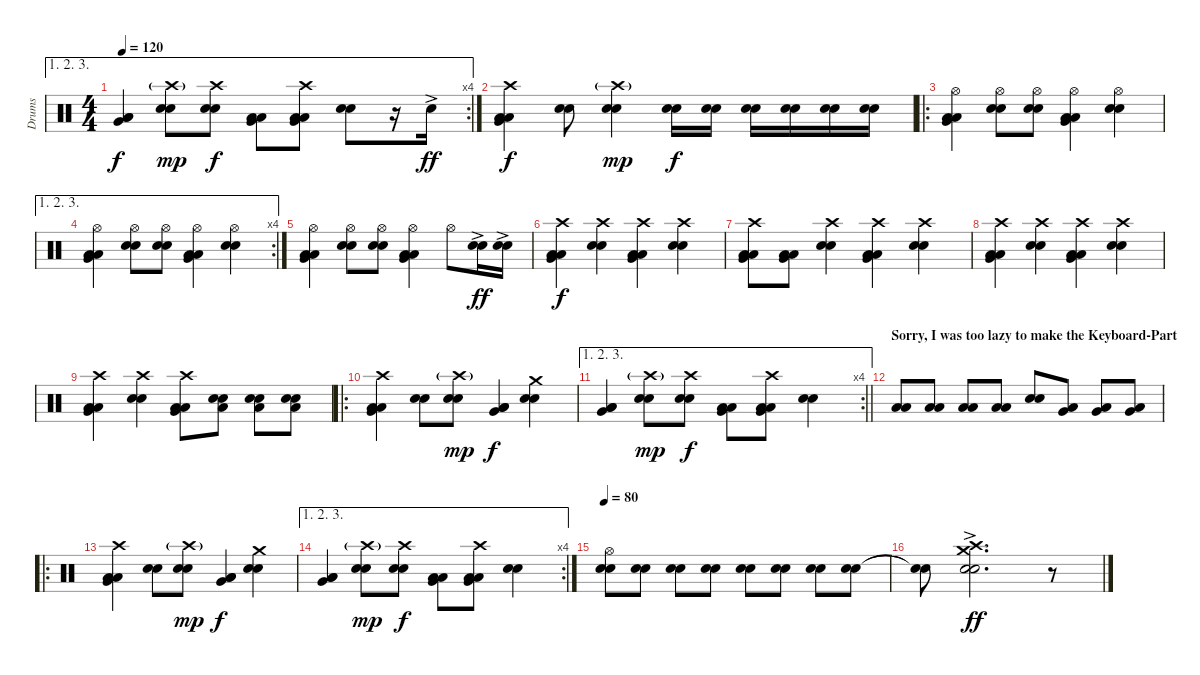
\track ("Drums" "Drums") {instrument percussion}
\staff {score}
\articulation defaults
\ae (1 2 3)
\rc 4
\ts (4 4)
\tempo 120
\clef neutral
\ks c
("Low Floor Tom (hit)" "Very Low Tom (hit)" "Low Tom (hit)").4{dy f} ("Crash high (hit)"{g} "Electric Snare (hit)" "Snare (hit) 2").8{dy mp} ("Crash high (hit)" "Electric Snare (hit)" "Snare (hit) 2").8{dy f} ("Low Tom (hit)" "Low Floor Tom (hit)" "Very Low Tom (hit)").8 ("Crash high (hit)" "Low Tom (hit)" "Low Floor Tom (hit)" "Very Low Tom (hit)").8 ("Electric Snare (hit)" "Snare (hit) 2").8 r.16 "Electric Snare (hit)"{ac}.16{dy ff} |
("Crash high (hit)" "Low Floor Tom (hit)" "Very Low Tom (hit)" "Low Tom (hit)").4{dy f} ("Electric Snare (hit)" "Snare (hit) 2").8 ("Crash high (hit)"{g} "Electric Snare (hit)" "Snare (hit) 2").4{dy mp} ("Electric Snare (hit)" "Snare (hit) 2").16{dy f} ("Electric Snare (hit)" "Snare (hit) 2").16 ("Electric Snare (hit)" "Snare (hit) 2").16 ("Electric Snare (hit)" "Snare (hit) 2").16 ("Electric Snare (hit)" "Snare (hit) 2").16 ("Electric Snare (hit)" "Snare (hit) 2").16 |
\ro
("Hi-Hat (open)" "Low Floor Tom (hit)" "Very Low Tom (hit)" "Low Tom (hit)").4 ("Hi-Hat (open)" "Electric Snare (hit)" "Snare (hit) 2").8 ("Hi-Hat (open)" "Electric Snare (hit)" "Snare (hit) 2").8 ("Hi-Hat (open)" "Low Tom (hit)" "Low Floor Tom (hit)" "Very Low Tom (hit)").4 ("Hi-Hat (open)" "Electric Snare (hit)" "Snare (hit) 2").4 |
\ae (1 2 3)
\rc 4
("Hi-Hat (open)" "Low Floor Tom (hit)" "Very Low Tom (hit)" "Low Tom (hit)").4 ("Hi-Hat (open)" "Electric Snare (hit)" "Snare (hit) 2").8 ("Hi-Hat (open)" "Electric Snare (hit)" "Snare (hit) 2").8 ("Hi-Hat (open)" "Low Tom (hit)" "Low Floor Tom (hit)" "Very Low Tom (hit)").4 ("Hi-Hat (open)" "Electric Snare (hit)" "Snare (hit) 2").4 |
("Hi-Hat (open)" "Low Floor Tom (hit)" "Very Low Tom (hit)" "Low Tom (hit)").4 ("Hi-Hat (open)" "Electric Snare (hit)" "Snare (hit) 2").8 ("Hi-Hat (open)" "Electric Snare (hit)" "Snare (hit) 2").8 ("Hi-Hat (open)" "Low Tom (hit)" "Low Floor Tom (hit)" "Very Low Tom (hit)").4 "Hi-Hat (open)".8 ("Electric Snare (hit)"{ac} "Snare (hit) 2").16{dy ff} ("Electric Snare (hit)"{ac} "Snare (hit) 2").16 |
("Crash high (hit)" "Low Floor Tom (hit)" "Very Low Tom (hit)" "Low Tom (hit)").4{dy f} ("Crash high (hit)" "Electric Snare (hit)" "Snare (hit) 2").4 ("Crash high (hit)" "Low Floor Tom (hit)" "Very Low Tom (hit)" "Low Tom (hit)").4 ("Crash high (hit)" "Electric Snare (hit)" "Snare (hit) 2").4 |
("Crash high (hit)" "Low Floor Tom (hit)" "Very Low Tom (hit)" "Low Tom (hit)").8 ("Low Floor Tom (hit)" "Very Low Tom (hit)" "Low Tom (hit)").8 ("Crash high (hit)" "Electric Snare (hit)" "Snare (hit) 2").4 ("Crash high (hit)" "Low Floor Tom (hit)" "Very Low Tom (hit)" "Low Tom (hit)").4 ("Crash high (hit)" "Electric Snare (hit)" "Snare (hit) 2").4 |
("Crash high (hit)" "Low Floor Tom (hit)" "Very Low Tom (hit)" "Low Tom (hit)").4 ("Crash high (hit)" "Electric Snare (hit)" "Snare (hit) 2").4 ("Crash high (hit)" "Low Floor Tom (hit)" "Very Low Tom (hit)" "Low Tom (hit)").4 ("Crash high (hit)" "Electric Snare (hit)" "Snare (hit) 2").4 |
("Crash high (hit)" "Low Floor Tom (hit)" "Very Low Tom (hit)" "Low Tom (hit)").4 ("Crash high (hit)" "Electric Snare (hit)" "Snare (hit) 2").4 ("Crash high (hit)" "Low Floor Tom (hit)" "Very Low Tom (hit)" "Low Tom (hit)").8 ("Electric Snare (hit)" "Snare (hit) 2" "Low Tom (hit)").8 ("Electric Snare (hit)" "Snare (hit) 2" "Low Tom (hit)").8 ("Electric Snare (hit)" "Snare (hit) 2" "Low Tom (hit)").8 |
\ro
("Crash high (hit)" "Low Floor Tom (hit)" "Very Low Tom (hit)" "Low Tom (hit)").4 ("Electric Snare (hit)" "Snare (hit) 2").8 ("Crash high (hit)"{g} "Electric Snare (hit)" "Snare (hit) 2").8{dy mp} ("Low Tom (hit)" "Low Floor Tom (hit)" "Very Low Tom (hit)").4{dy f} ("Crash medium (hit)" "Electric Snare (hit)" "Snare (hit) 2").4 |
\ae (1 2 3)
\rc 4
\barLineRight lightlight
("Low Floor Tom (hit)" "Very Low Tom (hit)" "Low Tom (hit)").4 ("Crash high (hit)"{g} "Electric Snare (hit)" "Snare (hit) 2").8{dy mp} ("Crash high (hit)" "Electric Snare (hit)" "Snare (hit) 2").8{dy f} ("Low Tom (hit)" "Low Floor Tom (hit)" "Very Low Tom (hit)").8 ("Crash high (hit)" "Low Tom (hit)" "Low Floor Tom (hit)" "Very Low Tom (hit)").8 ("Electric Snare (hit)" "Snare (hit) 2").4 |
\section ("" "Sorry, I was too lazy to make the Keyboard-Part")
("Low Floor Tom (hit)" "Low Tom (hit)").8 ("Low Floor Tom (hit)" "Low Tom (hit)").8 ("Low Floor Tom (hit)" "Low Tom (hit)").8 ("Low Floor Tom (hit)" "Low Tom (hit)").8 ("Snare (hit) 2" "Electric Snare (hit)").8 ("Very Low Tom (hit)" "Low Tom (hit)").8 ("Very Low Tom (hit)" "Low Tom (hit)").8 ("Very Low Tom (hit)" "Low Tom (hit)").8 |
\ro
("Crash high (hit)" "Low Floor Tom (hit)" "Very Low Tom (hit)" "Low Tom (hit)").4 ("Electric Snare (hit)" "Snare (hit) 2").8 ("Crash high (hit)"{g} "Electric Snare (hit)" "Snare (hit) 2").8{dy mp} ("Low Tom (hit)" "Low Floor Tom (hit)" "Very Low Tom (hit)").4{dy f} ("Crash medium (hit)" "Electric Snare (hit)" "Snare (hit) 2").4 |
\ae (1 2 3)
\rc 4
("Low Floor Tom (hit)" "Very Low Tom (hit)" "Low Tom (hit)").4 ("Crash high (hit)"{g} "Electric Snare (hit)" "Snare (hit) 2").8{dy mp} ("Crash high (hit)" "Electric Snare (hit)" "Snare (hit) 2").8{dy f} ("Low Tom (hit)" "Low Floor Tom (hit)" "Very Low Tom (hit)").8 ("Crash high (hit)" "Low Tom (hit)" "Low Floor Tom (hit)" "Very Low Tom (hit)").8 ("Electric Snare (hit)" "Snare (hit) 2").4 |
\tempo 80
("Hi-Hat (open)" "Snare (hit) 2" "Electric Snare (hit)").8 ("Snare (hit) 2" "Electric Snare (hit)").8 ("Snare (hit) 2" "Electric Snare (hit)").8 ("Snare (hit) 2" "Electric Snare (hit)").8 ("Snare (hit) 2" "Electric Snare (hit)").8 ("Snare (hit) 2" "Electric Snare (hit)").8 ("Snare (hit) 2" "Electric Snare (hit)").8 ("Snare (hit) 2" "Electric Snare (hit)").8 |
("Snare (hit)"{t} "Electric Snare (hit)"{t}).8 ("Crash high (hit)" "Crash medium (hit)" "Electric Snare (hit)"{ac} "Snare (hit) 2").2{d dy ff} r.8
